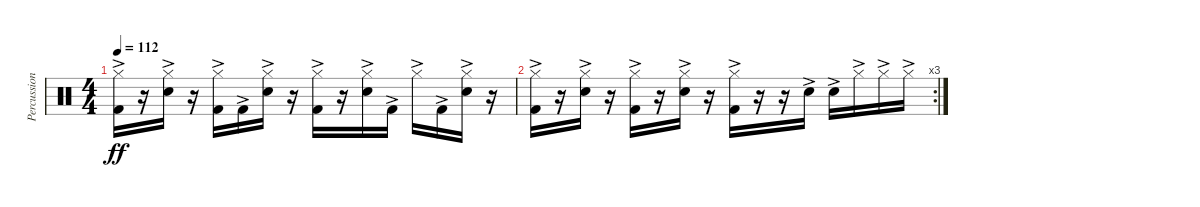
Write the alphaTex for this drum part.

\track ("Percussion" "Percussion") {instrument percussion}
\staff {score}
\articulation defaults
\ts (4 4)
\tempo 112
\clef neutral
\ks c
("Hi-Hat (closed)"{ac} "Kick (hit) 2"{ac}).16{dy ff} r.16 ("Hi-Hat (closed)"{ac} "Snare (hit) 2"{ac}).16 r.16 ("Hi-Hat (closed)"{ac} "Kick (hit) 2"{ac}).16 "Kick (hit) 2"{ac}.16 ("Hi-Hat (closed)"{ac} "Snare (hit) 2"{ac}).16 r.16 ("Hi-Hat (closed)"{ac} "Kick (hit) 2"{ac}).16 r.16 ("Hi-Hat (closed)"{ac} "Snare (hit) 2"{ac}).16 "Kick (hit) 2"{ac}.16 "Hi-Hat (closed)"{ac}.16 "Kick (hit) 2"{ac}.16 ("Hi-Hat (closed)"{ac} "Snare (hit) 2"{ac}).16 r.16 |
\rc 3
("Hi-Hat (closed)"{ac} "Kick (hit) 2"{ac}).16 r.16 ("Hi-Hat (closed)"{ac} "Snare (hit) 2"{ac}).16 r.16 ("Hi-Hat (closed)"{ac} "Kick (hit) 2"{ac}).16 r.16 ("Hi-Hat (closed)"{ac} "Snare (hit) 2"{ac}).16 r.16 ("Hi-Hat (closed)"{ac} "Kick (hit) 2"{ac}).16 r.16 r.16 "Snare (hit) 2"{ac}.16 "Snare (hit) 2"{ac}.16 "Hi-Hat (closed)"{ac}.16 "Hi-Hat (closed)"{ac}.16 "Hi-Hat (closed)"{ac}.16
